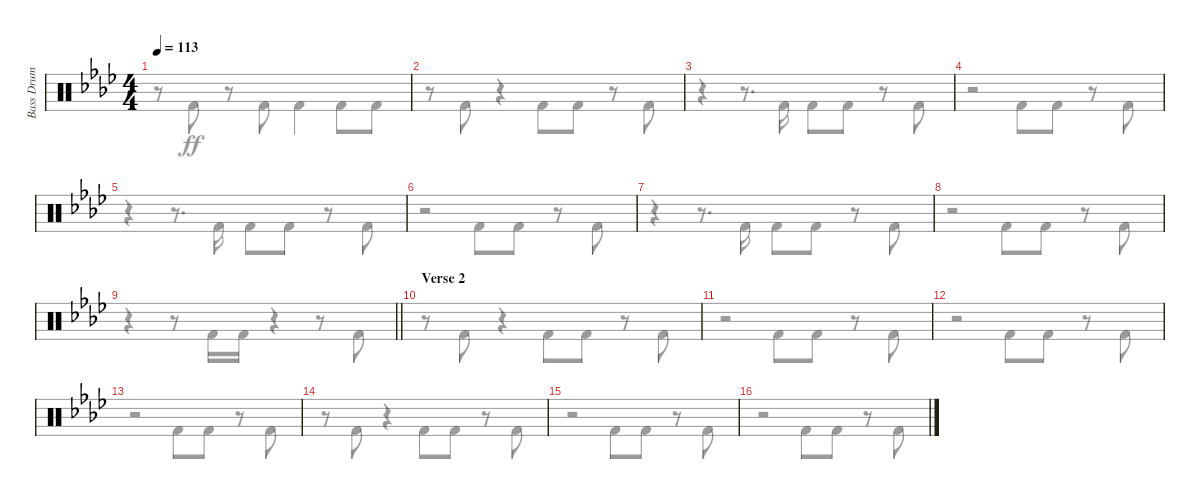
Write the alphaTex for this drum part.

\track ("Bass Drum" "Bass Drum") {instrument percussion}
\staff {score}
\articulation defaults
\voice
\ts (4 4)
\tempo 113
\clef neutral
\ks fminor
|
|
|
|
|
|
|
|
\barLineRight lightlight
|
\section ("" "Verse 2")
|
|
|
|
|
|
\voice
\clef neutral
\ks fminor
r.8{dy ff} "Kick (hit) 2".8 r.8 "Kick (hit) 2".8 "Kick (hit) 2".4 "Kick (hit) 2".8 "Kick (hit) 2".8 |
r.8 "Kick (hit) 2".8 r.4 "Kick (hit) 2".8 "Kick (hit) 2".8 r.8 "Kick (hit) 2".8 |
r.4 r.8{d} "Kick (hit) 2".16 "Kick (hit) 2".8 "Kick (hit) 2".8 r.8 "Kick (hit) 2".8 |
r.2 "Kick (hit) 2".8 "Kick (hit) 2".8 r.8 "Kick (hit) 2".8 |
r.4 r.8{d} "Kick (hit) 2".16 "Kick (hit) 2".8 "Kick (hit) 2".8 r.8 "Kick (hit) 2".8 |
r.2 "Kick (hit) 2".8 "Kick (hit) 2".8 r.8 "Kick (hit) 2".8 |
r.4 r.8{d} "Kick (hit) 2".16 "Kick (hit) 2".8 "Kick (hit) 2".8 r.8 "Kick (hit) 2".8 |
r.2 "Kick (hit) 2".8 "Kick (hit) 2".8 r.8 "Kick (hit) 2".8 |
\barLineRight lightlight
r.4 r.8 "Kick (hit) 2".16 "Kick (hit) 2".16 r.4 r.8 "Kick (hit) 2".8 |
r.8 "Kick (hit) 2".8 r.4 "Kick (hit) 2".8 "Kick (hit) 2".8 r.8 "Kick (hit) 2".8 |
r.2 "Kick (hit) 2".8 "Kick (hit) 2".8 r.8 "Kick (hit) 2".8 |
r.2 "Kick (hit) 2".8 "Kick (hit) 2".8 r.8 "Kick (hit) 2".8 |
r.2 "Kick (hit) 2".8 "Kick (hit) 2".8 r.8 "Kick (hit) 2".8 |
r.8 "Kick (hit) 2".8 r.4 "Kick (hit) 2".8 "Kick (hit) 2".8 r.8 "Kick (hit) 2".8 |
r.2 "Kick (hit) 2".8 "Kick (hit) 2".8 r.8 "Kick (hit) 2".8 |
r.2 "Kick (hit) 2".8 "Kick (hit) 2".8 r.8 "Kick (hit) 2".8
